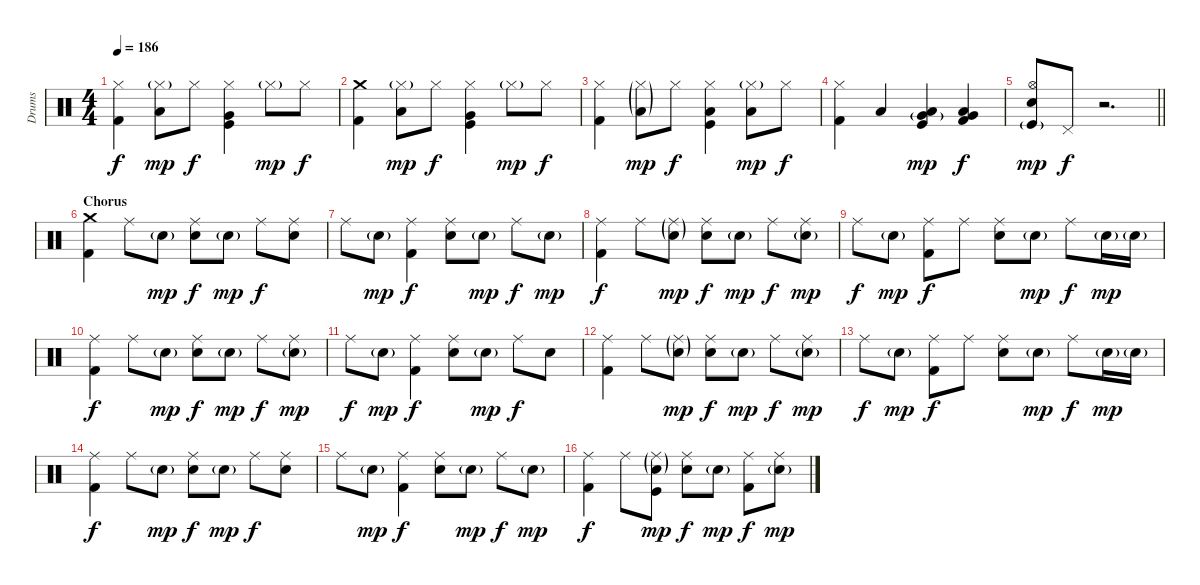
\track ("Drums" "Drums") {instrument percussion}
\staff {score}
\articulation defaults
\ts (4 4)
\tempo 186
\clef neutral
\ks c
("Hi-Hat (closed)" "Kick (hit) 2").4{dy f} ("Hi-Hat (closed)"{g} "Low Floor Tom (hit)").8{dy mp} "Hi-Hat (closed)".8{dy f} ("Hi-Hat (closed)" "Very Low Tom (hit)" "Kick (hit)").4 "Hi-Hat (closed)"{g}.8{dy mp} "Hi-Hat (closed)".8{dy f} |
("Crash medium (hit)" "Kick (hit) 2").4 ("Hi-Hat (closed)"{g} "Low Floor Tom (hit)").8{dy mp} "Hi-Hat (closed)".8{dy f} ("Hi-Hat (closed)" "Very Low Tom (hit)" "Kick (hit)").4 "Hi-Hat (closed)"{g}.8{dy mp} "Hi-Hat (closed)".8{dy f} |
("Hi-Hat (closed)" "Kick (hit) 2").4 ("Hi-Hat (closed)"{g} "Low Floor Tom (hit)"{g}).8{dy mp} "Hi-Hat (closed)".8{dy f} ("Hi-Hat (closed)" "Low Floor Tom (hit)" "Kick (hit)").4 ("Hi-Hat (closed)"{g} "Low Floor Tom (hit)").8{dy mp} "Hi-Hat (closed)".8{dy f} |
("Hi-Hat (closed)" "Kick (hit) 2").4 "Low Floor Tom (hit)".4 ("Very Low Tom (hit)"{g} "Low Floor Tom (hit)" "Kick (hit)").4{dy mp} ("Very Low Tom (hit)" "Low Floor Tom (hit)" "Kick (hit) 2").4{dy f} |
\barLineRight lightlight
("Hi-Hat (open)" "Electric Snare (hit)" "Kick (hit)"{g}).8{dy mp} "Pedal Hi-Hat (hit)".8{dy f} r.2{d} |
\section ("" "Chorus")
("Crash medium (hit)" "Kick (hit) 2").4 "Ride (middle)".8 "Electric Snare (hit)"{g}.8{dy mp} ("Ride (middle)" "Electric Snare (hit)").8{dy f} "Electric Snare (hit)"{g}.8{dy mp} "Ride (middle)".8{dy f} ("Ride (middle)" "Electric Snare (hit)").8 |
"Ride (middle)".8 "Electric Snare (hit)"{g}.8{dy mp} ("Ride (middle)" "Kick (hit) 2").4{dy f} ("Ride (middle)" "Electric Snare (hit)").8 "Electric Snare (hit)"{g}.8{dy mp} "Ride (middle)".8{dy f} "Electric Snare (hit)"{g}.8{dy mp} |
("Ride (middle)" "Kick (hit) 2").4{dy f} "Ride (middle)".8 ("Ride (middle)"{g} "Electric Snare (hit)"{g}).8{dy mp} ("Ride (middle)" "Electric Snare (hit)").8{dy f} "Electric Snare (hit)"{g}.8{dy mp} "Ride (middle)".8{dy f} ("Ride (middle)" "Electric Snare (hit)"{g}).8{dy mp} |
"Ride (middle)".8{dy f} "Electric Snare (hit)"{g}.8{dy mp} ("Ride (middle)" "Kick (hit) 2").8{dy f} "Ride (middle)".8 ("Ride (middle)" "Electric Snare (hit)").8 "Electric Snare (hit)"{g}.8{dy mp} "Ride (middle)".8{dy f} "Electric Snare (hit)"{g}.16{dy mp} "Electric Snare (hit)"{g}.16 |
("Ride (middle)" "Kick (hit) 2").4{dy f} "Ride (middle)".8 "Electric Snare (hit)"{g}.8{dy mp} ("Ride (middle)" "Electric Snare (hit)").8{dy f} "Electric Snare (hit)"{g}.8{dy mp} "Ride (middle)".8{dy f} ("Ride (middle)" "Electric Snare (hit)"{g}).8{dy mp} |
"Ride (middle)".8{dy f} "Electric Snare (hit)"{g}.8{dy mp} ("Ride (middle)" "Kick (hit) 2").4{dy f} ("Ride (middle)" "Electric Snare (hit)").8 "Electric Snare (hit)"{g}.8{dy mp} "Ride (middle)".8{dy f} "Electric Snare (hit)".8 |
("Ride (middle)" "Kick (hit) 2").4 "Ride (middle)".8 ("Ride (middle)"{g} "Electric Snare (hit)"{g}).8{dy mp} ("Ride (middle)" "Electric Snare (hit)").8{dy f} "Electric Snare (hit)"{g}.8{dy mp} "Ride (middle)".8{dy f} ("Ride (middle)" "Electric Snare (hit)"{g}).8{dy mp} |
"Ride (middle)".8{dy f} "Electric Snare (hit)"{g}.8{dy mp} ("Ride (middle)" "Kick (hit) 2").8{dy f} "Ride (middle)".8 ("Ride (middle)" "Electric Snare (hit)").8 "Electric Snare (hit)"{g}.8{dy mp} "Ride (middle)".8{dy f} "Electric Snare (hit)"{g}.16{dy mp} "Electric Snare (hit)"{g}.16 |
("Ride (middle)" "Kick (hit) 2").4{dy f} "Ride (middle)".8 "Electric Snare (hit)"{g}.8{dy mp} ("Ride (middle)" "Electric Snare (hit)").8{dy f} "Electric Snare (hit)"{g}.8{dy mp} "Ride (middle)".8{dy f} ("Ride (middle)" "Electric Snare (hit)").8 |
"Ride (middle)".8 "Electric Snare (hit)"{g}.8{dy mp} ("Ride (middle)" "Kick (hit) 2").4{dy f} ("Ride (middle)" "Electric Snare (hit)").8 "Electric Snare (hit)"{g}.8{dy mp} "Ride (middle)".8{dy f} "Electric Snare (hit)"{g}.8{dy mp} |
("Ride (middle)" "Kick (hit) 2").4{dy f} "Ride (middle)".8 ("Ride (middle)"{g} "Electric Snare (hit)"{g} "Kick (hit)").8{dy mp} ("Ride (middle)" "Electric Snare (hit)").8{dy f} "Electric Snare (hit)"{g}.8{dy mp} ("Ride (middle)" "Kick (hit) 2").8{dy f} ("Ride (middle)" "Electric Snare (hit)"{g}).8{dy mp}
